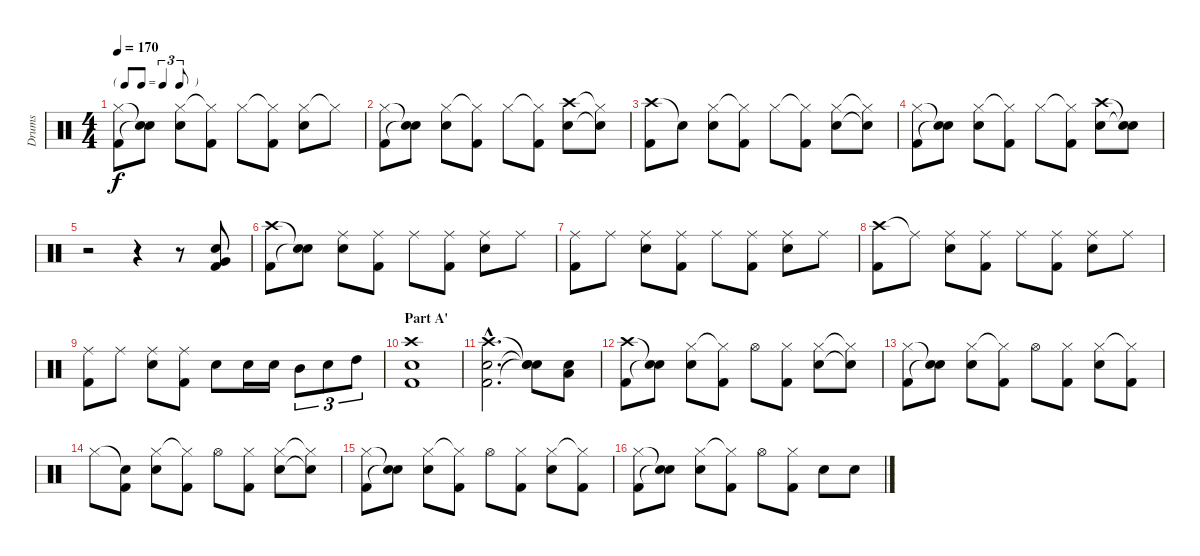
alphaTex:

\track ("Drums" "Drums") {instrument percussion}
\staff {score}
\articulation defaults
\ts (4 4)
\tf triplet8th
\tempo 170
\clef neutral
\ks c
("Hi-Hat (closed)" "Kick (hit) 2").8{dy f} ("Snare (hit)"{t} "Snare (hit)"{t}).8 ("Hi-Hat (closed)" "Electric Snare (hit)").8 ("Hi-Hat (closed)"{t} "Kick (hit) 2").8 "Hi-Hat (closed)".8 ("Hi-Hat (closed)"{t} "Kick (hit) 2").8 ("Hi-Hat (closed)" "Electric Snare (hit)").8 "Hi-Hat (closed)"{t}.8 |
("Hi-Hat (closed)" "Kick (hit) 2").8 ("Snare (hit)"{t} "Snare (hit)"{t}).8 ("Hi-Hat (closed)" "Electric Snare (hit)").8 ("Hi-Hat (closed)"{t} "Kick (hit) 2").8 "Hi-Hat (closed)".8 ("Hi-Hat (closed)"{t} "Kick (hit) 2").8 ("Crash high (hit)" "Electric Snare (hit)").8 ("Hi-Hat (closed)"{t} "Snare (hit)"{t}).8 |
("Crash high (hit)" "Kick (hit) 2").8 "Snare (hit)"{t}.8 ("Hi-Hat (closed)" "Electric Snare (hit)").8 ("Hi-Hat (closed)"{t} "Kick (hit) 2").8 "Hi-Hat (closed)".8 ("Hi-Hat (closed)"{t} "Kick (hit) 2").8 ("Hi-Hat (closed)" "Electric Snare (hit)").8 ("Hi-Hat (closed)"{t} "Snare (hit)"{t}).8 |
("Hi-Hat (closed)" "Kick (hit) 2").8 ("Snare (hit)"{t} "Snare (hit)"{t}).8 ("Hi-Hat (closed)" "Electric Snare (hit)").8 ("Hi-Hat (closed)"{t} "Kick (hit) 2").8 "Hi-Hat (closed)".8 ("Hi-Hat (closed)"{t} "Kick (hit) 2").8 ("Crash high (hit)" "Electric Snare (hit)").8 ("Snare (hit)"{t} "Electric Snare (hit)"{t}).8 |
r.2 r.4 r.8 ("Very Low Tom (hit)" "Electric Snare (hit)" "Kick (hit) 2").8 |
("Crash high (hit)" "Kick (hit) 2").8 ("Snare (hit)"{t} "Snare (hit)"{t}).8 ("Ride (middle)" "Electric Snare (hit)").8 ("Ride (middle)" "Kick (hit) 2").8 "Ride (middle)".8 ("Ride (middle)" "Kick (hit) 2").8 ("Ride (middle)" "Electric Snare (hit)").8 "Ride (middle)".8 |
("Ride (middle)" "Kick (hit) 2").8 "Ride (middle)".8 ("Ride (middle)" "Electric Snare (hit)").8 ("Ride (middle)" "Kick (hit) 2").8 "Ride (middle)".8 ("Ride (middle)" "Kick (hit) 2").8 ("Ride (middle)" "Electric Snare (hit)").8 "Ride (middle)".8 |
("Crash high (hit)" "Kick (hit) 2").8 "Ride (middle)"{t}.8 ("Ride (middle)" "Electric Snare (hit)").8 ("Ride (middle)" "Kick (hit) 2").8 "Ride (middle)".8 ("Ride (middle)" "Kick (hit) 2").8 ("Ride (middle)" "Electric Snare (hit)").8 "Ride (middle)".8 |
("Ride (middle)" "Kick (hit) 2").8 "Ride (middle)".8 ("Ride (middle)" "Electric Snare (hit)").8 ("Ride (middle)" "Kick (hit) 2").8 "Electric Snare (hit)".8 "Electric Snare (hit)".16 "Electric Snare (hit)".16 "Mid Tom (hit)".8{tu (3 2)} "Electric Snare (hit)".8{tu (3 2)} "High Tom (hit)".8{tu (3 2)} |
\section ("" "Part A'")
("Crash high (hit)" "Electric Snare (hit)" "Kick (hit) 2").1 |
("Crash high (hit)"{hac} "Electric Snare (hit)"{hac} "Kick (hit) 2"{hac}).2{d} ("Snare (hit)"{t} "Snare (hit)"{t} "Snare (hit)"{t}).8 ("Low Tom (hit)" "Electric Snare (hit)").8 |
("Crash high (hit)" "Kick (hit) 2").8 ("Snare (hit)"{t} "Snare (hit)"{t}).8 ("Hi-Hat (closed)" "Electric Snare (hit)").8 ("Hi-Hat (closed)"{t} "Kick (hit) 2").8 "Hi-Hat (open)".8 ("Hi-Hat (closed)" "Kick (hit) 2").8 ("Hi-Hat (closed)" "Electric Snare (hit)").8 ("Hi-Hat (closed)"{t} "Snare (hit)"{t}).8 |
("Hi-Hat (closed)" "Kick (hit) 2").8 ("Snare (hit)"{t} "Snare (hit)"{t}).8 ("Hi-Hat (closed)" "Electric Snare (hit)").8 ("Hi-Hat (closed)"{t} "Kick (hit) 2").8 "Hi-Hat (open)".8 ("Hi-Hat (closed)" "Kick (hit) 2").8 ("Hi-Hat (closed)" "Electric Snare (hit)").8 ("Hi-Hat (closed)"{t} "Kick (hit) 2").8 |
"Hi-Hat (closed)".8 ("Snare (hit)"{t} "Kick (hit) 2").8 ("Hi-Hat (closed)" "Electric Snare (hit)").8 ("Hi-Hat (closed)"{t} "Kick (hit) 2").8 "Hi-Hat (open)".8 ("Hi-Hat (closed)" "Kick (hit) 2").8 ("Hi-Hat (closed)" "Electric Snare (hit)").8 ("Hi-Hat (closed)"{t} "Snare (hit)"{t}).8 |
("Hi-Hat (closed)" "Kick (hit) 2").8 ("Snare (hit)"{t} "Snare (hit)"{t}).8 ("Hi-Hat (closed)" "Electric Snare (hit)").8 ("Hi-Hat (closed)"{t} "Kick (hit) 2").8 "Hi-Hat (open)".8 ("Hi-Hat (closed)" "Kick (hit) 2").8 ("Hi-Hat (closed)" "Electric Snare (hit)").8 ("Hi-Hat (closed)"{t} "Kick (hit) 2").8 |
("Hi-Hat (closed)" "Kick (hit) 2").8 ("Snare (hit)"{t} "Snare (hit)"{t}).8 ("Hi-Hat (closed)" "Electric Snare (hit)").8 ("Hi-Hat (closed)"{t} "Kick (hit) 2").8 "Hi-Hat (open)".8 ("Hi-Hat (closed)" "Kick (hit) 2").8 "Electric Snare (hit)".8 "Electric Snare (hit)".8
